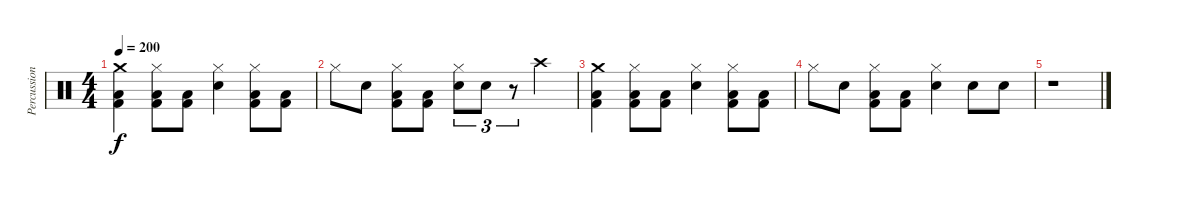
\track ("Percussions" "Percussion") {instrument percussion}
\staff {score}
\articulation defaults
\ts (4 4)
\tempo 200
\clef neutral
\ks c
("Kick (hit) 2" "Low Floor Tom (hit)" "Crash medium (hit)").4{dy f} ("Kick (hit) 2" "Low Floor Tom (hit)" "Hi-Hat (closed)").8 ("Kick (hit) 2" "Low Floor Tom (hit)").8 ("Snare (hit) 2" "Hi-Hat (closed)").4 ("Kick (hit) 2" "Low Floor Tom (hit)" "Hi-Hat (closed)").8 ("Kick (hit) 2" "Low Floor Tom (hit)").8 |
"Hi-Hat (closed)".8 "Snare (hit) 2".8 ("Kick (hit) 2" "Low Floor Tom (hit)" "Hi-Hat (closed)").8 ("Kick (hit) 2" "Low Floor Tom (hit)").8 ("Snare (hit) 2" "Hi-Hat (closed)").8{tu (3 2)} "Snare (hit) 2".8{tu (3 2)} r.8{tu (3 2)} "Crash high (hit)".4 |
("Kick (hit) 2" "Low Floor Tom (hit)" "Crash medium (hit)").4 ("Kick (hit) 2" "Low Floor Tom (hit)" "Hi-Hat (closed)").8 ("Kick (hit) 2" "Low Floor Tom (hit)").8 ("Snare (hit) 2" "Hi-Hat (closed)").4 ("Kick (hit) 2" "Low Floor Tom (hit)" "Hi-Hat (closed)").8 ("Kick (hit) 2" "Low Floor Tom (hit)").8 |
"Hi-Hat (closed)".8 "Snare (hit) 2".8 ("Kick (hit) 2" "Low Floor Tom (hit)" "Hi-Hat (closed)").8 ("Kick (hit) 2" "Low Floor Tom (hit)").8 ("Snare (hit) 2" "Hi-Hat (closed)").4 "Snare (hit) 2".8 "Snare (hit) 2".8 |
r.1
